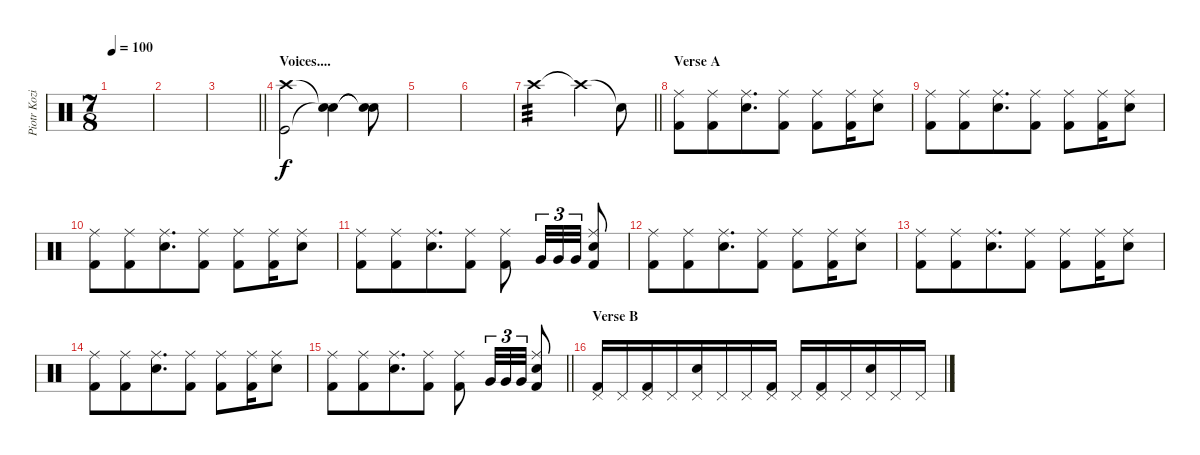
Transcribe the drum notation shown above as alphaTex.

\track ("Piotr Kozieradzki" "Piotr Kozi") {instrument percussion}
\staff {score}
\articulation defaults
\ts (7 8)
\tempo 100
\clef neutral
\ks c
|
|
\barLineRight lightlight
|
\section ("" "Voices....")
("Crash high (hit)" "Kick (hit)").2 ("Snare (hit)"{t} "Snare (hit)"{t}).4 ("Snare (hit)"{t} "Snare (hit)"{t}).8 |
|
|
\barLineRight lightlight "Crash high (hit)".2{tp 3 volume 13} "Crash high (hit)"{t}.4 "Snare (hit)"{t}.8
|
\section ("" "Verse A")
("Ride (middle)" "Kick (hit) 2").8 ("Ride (middle)" "Kick (hit) 2").8 ("Ride (middle)" "Snare (hit) 2").8{d} ("Ride (middle)" "Kick (hit) 2").8 ("Ride (middle)" "Kick (hit) 2").8 ("Ride (middle)" "Kick (hit) 2").16 ("Ride (middle)" "Snare (hit) 2").8 |
("Ride (middle)" "Kick (hit) 2").8 ("Ride (middle)" "Kick (hit) 2").8 ("Ride (middle)" "Snare (hit) 2").8{d} ("Ride (middle)" "Kick (hit) 2").8 ("Ride (middle)" "Kick (hit) 2").8 ("Ride (middle)" "Kick (hit) 2").16 ("Ride (middle)" "Snare (hit) 2").8 |
("Ride (middle)" "Kick (hit) 2").8 ("Ride (middle)" "Kick (hit) 2").8 ("Ride (middle)" "Snare (hit) 2").8{d} ("Ride (middle)" "Kick (hit) 2").8 ("Ride (middle)" "Kick (hit) 2").8 ("Ride (middle)" "Kick (hit) 2").16 ("Ride (middle)" "Snare (hit) 2").8 |
("Ride (middle)" "Kick (hit) 2").8 ("Ride (middle)" "Kick (hit) 2").8 ("Ride (middle)" "Snare (hit) 2").8{d} ("Ride (middle)" "Kick (hit) 2").8 ("Ride (middle)" "Kick (hit) 2").8 "Very Low Tom (hit)".32{tu (3 2)} "Very Low Tom (hit)".32{tu (3 2)} "Very Low Tom (hit)".32{tu (3 2)} ("Ride (middle)" "Snare (hit) 2" "Kick (hit) 2").8 |
("Ride (middle)" "Kick (hit) 2").8 ("Ride (middle)" "Kick (hit) 2").8 ("Ride (middle)" "Snare (hit) 2").8{d} ("Ride (middle)" "Kick (hit) 2").8 ("Ride (middle)" "Kick (hit) 2").8 ("Ride (middle)" "Kick (hit) 2").16 ("Ride (middle)" "Snare (hit) 2").8 |
("Ride (middle)" "Kick (hit) 2").8 ("Ride (middle)" "Kick (hit) 2").8 ("Ride (middle)" "Snare (hit) 2").8{d} ("Ride (middle)" "Kick (hit) 2").8 ("Ride (middle)" "Kick (hit) 2").8 ("Ride (middle)" "Kick (hit) 2").16 ("Ride (middle)" "Snare (hit) 2").8 |
("Ride (middle)" "Kick (hit) 2").8 ("Ride (middle)" "Kick (hit) 2").8 ("Ride (middle)" "Snare (hit) 2").8{d} ("Ride (middle)" "Kick (hit) 2").8 ("Ride (middle)" "Kick (hit) 2").8 ("Ride (middle)" "Kick (hit) 2").16 ("Ride (middle)" "Snare (hit) 2").8 |
\barLineRight lightlight
("Ride (middle)" "Kick (hit) 2").8 ("Ride (middle)" "Kick (hit) 2").8 ("Ride (middle)" "Snare (hit) 2").8{d} ("Ride (middle)" "Kick (hit) 2").8 ("Ride (middle)" "Kick (hit) 2").8 "Very Low Tom (hit)".32{tu (3 2)} "Very Low Tom (hit)".32{tu (3 2)} "Very Low Tom (hit)".32{tu (3 2)} ("Ride (middle)" "Snare (hit) 2" "Kick (hit) 2").8 |
\section ("" "Verse B")
("Pedal Hi-Hat (hit)" "Kick (hit) 2").16 "Pedal Hi-Hat (hit)".16 ("Pedal Hi-Hat (hit)" "Kick (hit) 2").16 "Pedal Hi-Hat (hit)".16 ("Pedal Hi-Hat (hit)" "Snare (hit) 2").16 "Pedal Hi-Hat (hit)".16 "Pedal Hi-Hat (hit)".16 ("Pedal Hi-Hat (hit)" "Kick (hit) 2").16 "Pedal Hi-Hat (hit)".16 ("Pedal Hi-Hat (hit)" "Kick (hit) 2").16 "Pedal Hi-Hat (hit)".16 ("Pedal Hi-Hat (hit)" "Snare (hit) 2").16 "Pedal Hi-Hat (hit)".16 "Pedal Hi-Hat (hit)".16
